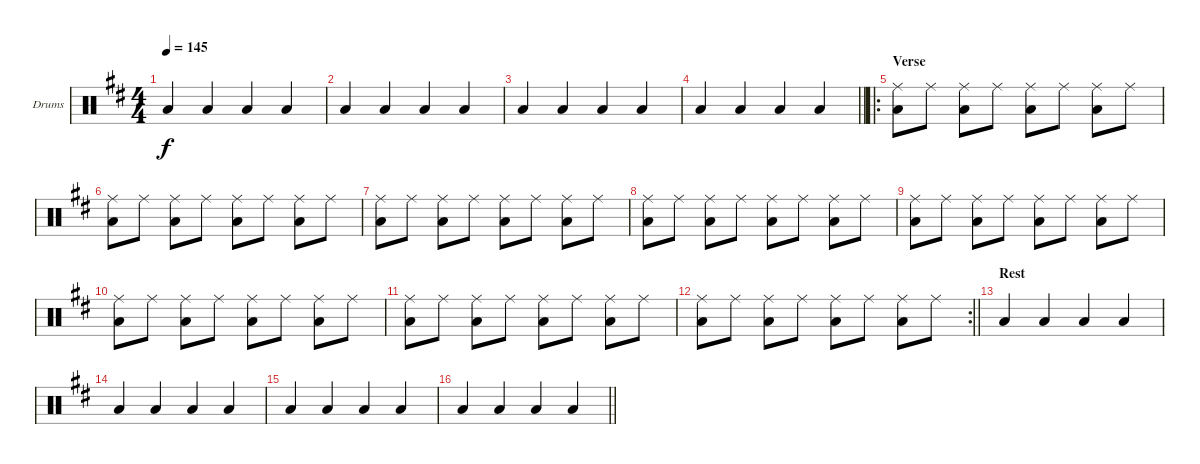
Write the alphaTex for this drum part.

\bracketExtendMode groupsimilarinstruments
\firstSystemTrackNameOrientation horizontal
\otherSystemsTrackNameOrientation horizontal
\track ("Drumkit" "Drums") {mute instrument percussion}
\staff {score}
\articulation defaults
\ts (4 4)
\beaming (8 2 2 2 2)
\tempo 145
\clef neutral
\ks d "Low Tom (hit)".4{dy f} "Low Tom (hit)".4 "Low Tom (hit)".4 "Low Tom (hit)".4
|
"Low Tom (hit)".4 "Low Tom (hit)".4 "Low Tom (hit)".4 "Low Tom (hit)".4 |
"Low Tom (hit)".4 "Low Tom (hit)".4 "Low Tom (hit)".4 "Low Tom (hit)".4 |
\barLineRight lightlight "Low Tom (hit)".4 "Low Tom (hit)".4 "Low Tom (hit)".4 "Low Tom (hit)".4
|
\ro
\section ("" "Verse")
("Low Tom (hit)" "Ride (middle)").8 "Ride (middle)".8 ("Low Tom (hit)" "Ride (middle)").8 "Ride (middle)".8 ("Low Tom (hit)" "Ride (middle)").8 "Ride (middle)".8 ("Low Tom (hit)" "Ride (middle)").8 "Ride (middle)".8 |
("Low Tom (hit)" "Ride (middle)").8 "Ride (middle)".8 ("Low Tom (hit)" "Ride (middle)").8 "Ride (middle)".8 ("Low Tom (hit)" "Ride (middle)").8 "Ride (middle)".8 ("Low Tom (hit)" "Ride (middle)").8 "Ride (middle)".8 |
("Low Tom (hit)" "Ride (middle)").8 "Ride (middle)".8 ("Low Tom (hit)" "Ride (middle)").8 "Ride (middle)".8 ("Low Tom (hit)" "Ride (middle)").8 "Ride (middle)".8 ("Low Tom (hit)" "Ride (middle)").8 "Ride (middle)".8 |
("Low Tom (hit)" "Ride (middle)").8 "Ride (middle)".8 ("Low Tom (hit)" "Ride (middle)").8 "Ride (middle)".8 ("Low Tom (hit)" "Ride (middle)").8 "Ride (middle)".8 ("Low Tom (hit)" "Ride (middle)").8 "Ride (middle)".8 |
("Low Tom (hit)" "Ride (middle)").8 "Ride (middle)".8 ("Low Tom (hit)" "Ride (middle)").8 "Ride (middle)".8 ("Low Tom (hit)" "Ride (middle)").8 "Ride (middle)".8 ("Low Tom (hit)" "Ride (middle)").8 "Ride (middle)".8 |
("Low Tom (hit)" "Ride (middle)").8 "Ride (middle)".8 ("Low Tom (hit)" "Ride (middle)").8 "Ride (middle)".8 ("Low Tom (hit)" "Ride (middle)").8 "Ride (middle)".8 ("Low Tom (hit)" "Ride (middle)").8 "Ride (middle)".8 |
("Low Tom (hit)" "Ride (middle)").8 "Ride (middle)".8 ("Low Tom (hit)" "Ride (middle)").8 "Ride (middle)".8 ("Low Tom (hit)" "Ride (middle)").8 "Ride (middle)".8 ("Low Tom (hit)" "Ride (middle)").8 "Ride (middle)".8 |
\rc 2
\barLineRight lightlight
("Low Tom (hit)" "Ride (middle)").8 "Ride (middle)".8 ("Low Tom (hit)" "Ride (middle)").8 "Ride (middle)".8 ("Low Tom (hit)" "Ride (middle)").8 "Ride (middle)".8 ("Low Tom (hit)" "Ride (middle)").8 "Ride (middle)".8 |
\section ("" "Rest")
"Low Tom (hit)".4 "Low Tom (hit)".4 "Low Tom (hit)".4 "Low Tom (hit)".4 |
"Low Tom (hit)".4 "Low Tom (hit)".4 "Low Tom (hit)".4 "Low Tom (hit)".4 |
"Low Tom (hit)".4 "Low Tom (hit)".4 "Low Tom (hit)".4 "Low Tom (hit)".4 |
\barLineRight lightlight "Low Tom (hit)".4 "Low Tom (hit)".4 "Low Tom (hit)".4 "Low Tom (hit)".4
